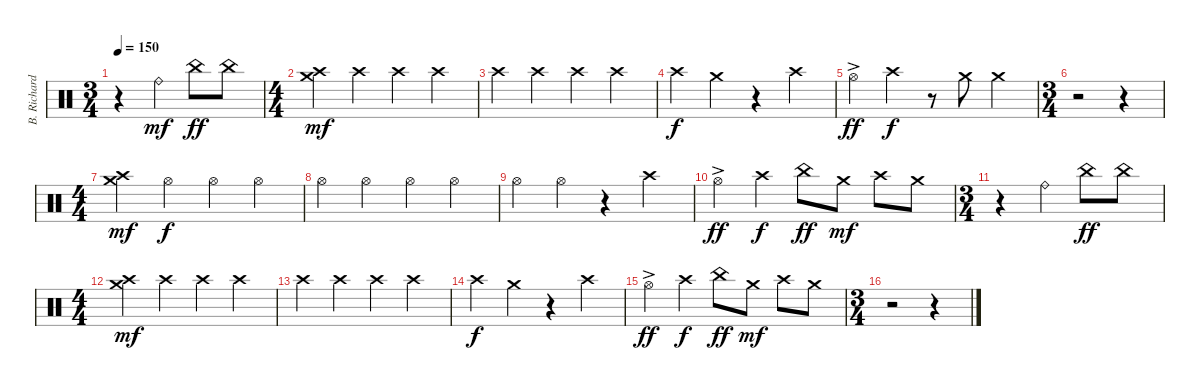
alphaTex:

\track ("B. Richardson Drums" "B. Richard") {instrument percussion}
\staff {score}
\articulation defaults
\ts (3 4)
\tempo 150
\clef neutral
\ks c
r.4{dy f} "Ride (bell)".4{dy mf} "China (hit)".8{dy ff} "China (hit)".8 |
\ts (4 4)
("Crash high (hit)" "Crash medium (hit)").4{dy mf} "Crash high (hit)".4 "Crash high (hit)".4 "Crash high (hit)".4 |
"Crash high (hit)".4 "Crash high (hit)".4 "Crash high (hit)".4 "Crash high (hit)".4 |
"Crash high (hit)".4{dy f} "Crash medium (hit)".4 r.4 "Crash high (hit)".4 |
"Hi-Hat (open)"{ac}.4{dy ff} "Crash high (hit)".4{dy f} r.8 "Crash medium (hit)".8 "Crash medium (hit)".4 |
\ts (3 4)
r.2 r.4 |
\ts (4 4)
("Crash high (hit)" "Crash medium (hit)").4{dy mf} "Hi-Hat (open)".4{dy f} "Hi-Hat (open)".4 "Hi-Hat (open)".4 |
"Hi-Hat (open)".4 "Hi-Hat (open)".4 "Hi-Hat (open)".4 "Hi-Hat (open)".4 |
"Hi-Hat (open)".4 "Hi-Hat (open)".4 r.4 "Crash high (hit)".4 |
"Hi-Hat (open)"{ac}.4{dy ff} "Crash high (hit)".4{dy f} "China (hit)".8{dy ff} "Crash medium (hit)".8{dy mf} "Crash high (hit)".8 "Crash medium (hit)".8 |
\ts (3 4)
r.4 "Ride (bell)".4 "China (hit)".8{dy ff} "China (hit)".8 |
\ts (4 4)
("Crash high (hit)" "Crash medium (hit)").4{dy mf} "Crash high (hit)".4 "Crash high (hit)".4 "Crash high (hit)".4 |
"Crash high (hit)".4 "Crash high (hit)".4 "Crash high (hit)".4 "Crash high (hit)".4 |
"Crash high (hit)".4{dy f} "Crash medium (hit)".4 r.4 "Crash high (hit)".4 |
"Hi-Hat (open)"{ac}.4{dy ff} "Crash high (hit)".4{dy f} "China (hit)".8{dy ff} "Crash medium (hit)".8{dy mf} "Crash high (hit)".8 "Crash medium (hit)".8 |
\ts (3 4)
r.2 r.4
